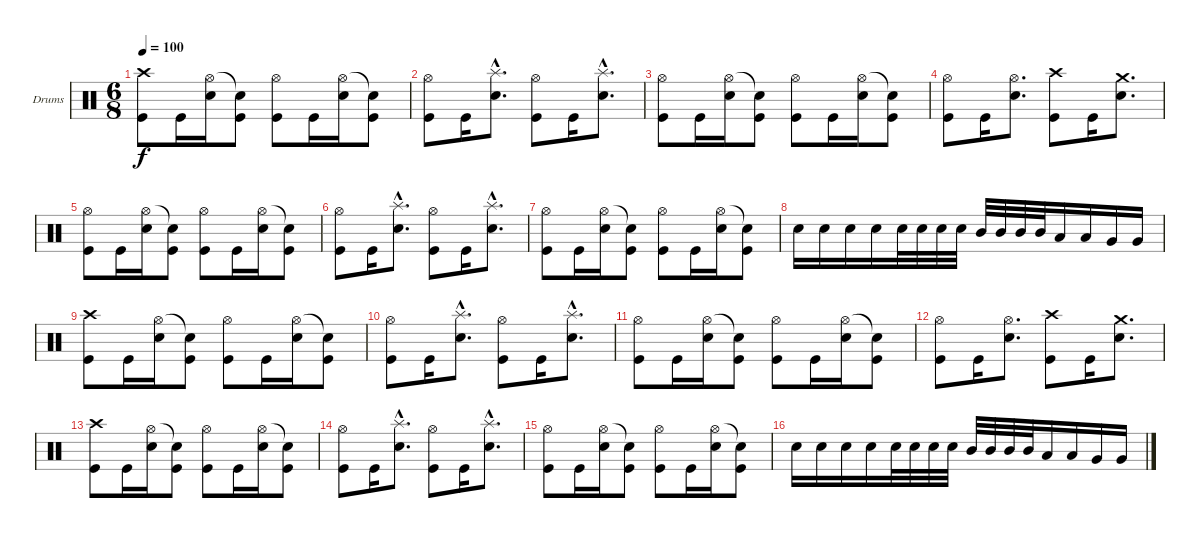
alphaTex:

\defaultSystemsLayout 4
\bracketExtendMode groupsimilarinstruments
\firstSystemTrackNameOrientation horizontal
\otherSystemsTrackNameOrientation horizontal
\track ("Stefan Schwarzmann" "Drums") {instrument percussion}
\staff {score}
\articulation defaults
\ts (6 8)
\tempo 100
\clef neutral
\ks c
("Kick (hit)" "Crash high (hit)").8{dy f} "Kick (hit)".16 ("Snare (hit) 2" "Hi-Hat (open)").16 ("Kick (hit)" "Snare (hit) 2"{t}).8 ("Kick (hit)" "Hi-Hat (open)").8 "Kick (hit)".16 ("Snare (hit) 2" "Hi-Hat (open)").16 ("Kick (hit)" "Snare (hit) 2"{t}).8 |
("Kick (hit)" "Hi-Hat (open)").8 "Kick (hit)".16 ("Snare (hit) 2" "Splash (hit)"{hac}).8{d} ("Kick (hit)" "Hi-Hat (open)").8 "Kick (hit)".16 ("Snare (hit) 2" "Splash (hit)"{hac}).8{d} |
("Kick (hit)" "Hi-Hat (open)").8 "Kick (hit)".16 ("Snare (hit) 2" "Hi-Hat (open)").16 ("Kick (hit)" "Snare (hit) 2"{t}).8 ("Kick (hit)" "Hi-Hat (open)").8 "Kick (hit)".16 ("Snare (hit) 2" "Hi-Hat (open)").16 ("Kick (hit)" "Snare (hit) 2"{t}).8 |
("Kick (hit)" "Hi-Hat (open)").8 "Kick (hit)".16 ("Snare (hit) 2" "Hi-Hat (open)").8{d} ("Kick (hit)" "Crash high (hit)").8 "Kick (hit)".16 ("Snare (hit) 2" "Crash medium (hit)").8{d} |
("Kick (hit)" "Hi-Hat (open)").8 "Kick (hit)".16 ("Snare (hit) 2" "Hi-Hat (open)").16 ("Kick (hit)" "Snare (hit) 2"{t}).8 ("Kick (hit)" "Hi-Hat (open)").8 "Kick (hit)".16 ("Snare (hit) 2" "Hi-Hat (open)").16 ("Kick (hit)" "Snare (hit) 2"{t}).8 |
("Kick (hit)" "Hi-Hat (open)").8 "Kick (hit)".16 ("Snare (hit) 2" "Splash (hit)"{hac}).8{d} ("Kick (hit)" "Hi-Hat (open)").8 "Kick (hit)".16 ("Snare (hit) 2" "Splash (hit)"{hac}).8{d} |
("Kick (hit)" "Hi-Hat (open)").8 "Kick (hit)".16 ("Snare (hit) 2" "Hi-Hat (open)").16 ("Kick (hit)" "Snare (hit) 2"{t}).8 ("Kick (hit)" "Hi-Hat (open)").8 "Kick (hit)".16 ("Snare (hit) 2" "Hi-Hat (open)").16 ("Kick (hit)" "Snare (hit) 2"{t}).8 |
"Snare (hit) 2".16 "Snare (hit) 2".16 "Snare (hit) 2".16 "Snare (hit) 2".16 "Snare (hit) 2".32 "Snare (hit) 2".32 "Snare (hit) 2".32 "Snare (hit) 2".32 "Mid Tom (hit)".32 "Mid Tom (hit)".32 "Mid Tom (hit)".32 "Mid Tom (hit)".32 "Low Tom (hit)".16 "Low Tom (hit)".16 "Very Low Tom (hit)".16 "Very Low Tom (hit)".16 |
("Kick (hit)" "Crash high (hit)").8 "Kick (hit)".16 ("Snare (hit) 2" "Hi-Hat (open)").16 ("Kick (hit)" "Snare (hit) 2"{t}).8 ("Kick (hit)" "Hi-Hat (open)").8 "Kick (hit)".16 ("Snare (hit) 2" "Hi-Hat (open)").16 ("Kick (hit)" "Snare (hit) 2"{t}).8 |
("Kick (hit)" "Hi-Hat (open)").8 "Kick (hit)".16 ("Snare (hit) 2" "Splash (hit)"{hac}).8{d} ("Kick (hit)" "Hi-Hat (open)").8 "Kick (hit)".16 ("Snare (hit) 2" "Splash (hit)"{hac}).8{d} |
("Kick (hit)" "Hi-Hat (open)").8 "Kick (hit)".16 ("Snare (hit) 2" "Hi-Hat (open)").16 ("Kick (hit)" "Snare (hit) 2"{t}).8 ("Kick (hit)" "Hi-Hat (open)").8 "Kick (hit)".16 ("Snare (hit) 2" "Hi-Hat (open)").16 ("Kick (hit)" "Snare (hit) 2"{t}).8 |
("Kick (hit)" "Hi-Hat (open)").8 "Kick (hit)".16 ("Snare (hit) 2" "Hi-Hat (open)").8{d} ("Kick (hit)" "Crash high (hit)").8 "Kick (hit)".16 ("Snare (hit) 2" "Crash medium (hit)").8{d} |
("Kick (hit)" "Crash high (hit)").8 "Kick (hit)".16 ("Snare (hit) 2" "Hi-Hat (open)").16 ("Kick (hit)" "Snare (hit) 2"{t}).8 ("Kick (hit)" "Hi-Hat (open)").8 "Kick (hit)".16 ("Snare (hit) 2" "Hi-Hat (open)").16 ("Kick (hit)" "Snare (hit) 2"{t}).8 |
("Kick (hit)" "Hi-Hat (open)").8 "Kick (hit)".16 ("Snare (hit) 2" "Splash (hit)"{hac}).8{d} ("Kick (hit)" "Hi-Hat (open)").8 "Kick (hit)".16 ("Snare (hit) 2" "Splash (hit)"{hac}).8{d} |
("Kick (hit)" "Hi-Hat (open)").8 "Kick (hit)".16 ("Snare (hit) 2" "Hi-Hat (open)").16 ("Kick (hit)" "Snare (hit) 2"{t}).8 ("Kick (hit)" "Hi-Hat (open)").8 "Kick (hit)".16 ("Snare (hit) 2" "Hi-Hat (open)").16 ("Kick (hit)" "Snare (hit) 2"{t}).8 |
"Snare (hit) 2".16 "Snare (hit) 2".16 "Snare (hit) 2".16 "Snare (hit) 2".16 "Snare (hit) 2".32 "Snare (hit) 2".32 "Snare (hit) 2".32 "Snare (hit) 2".32 "Mid Tom (hit)".32 "Mid Tom (hit)".32 "Mid Tom (hit)".32 "Mid Tom (hit)".32 "Low Tom (hit)".16 "Low Tom (hit)".16 "Very Low Tom (hit)".16 "Very Low Tom (hit)".16
